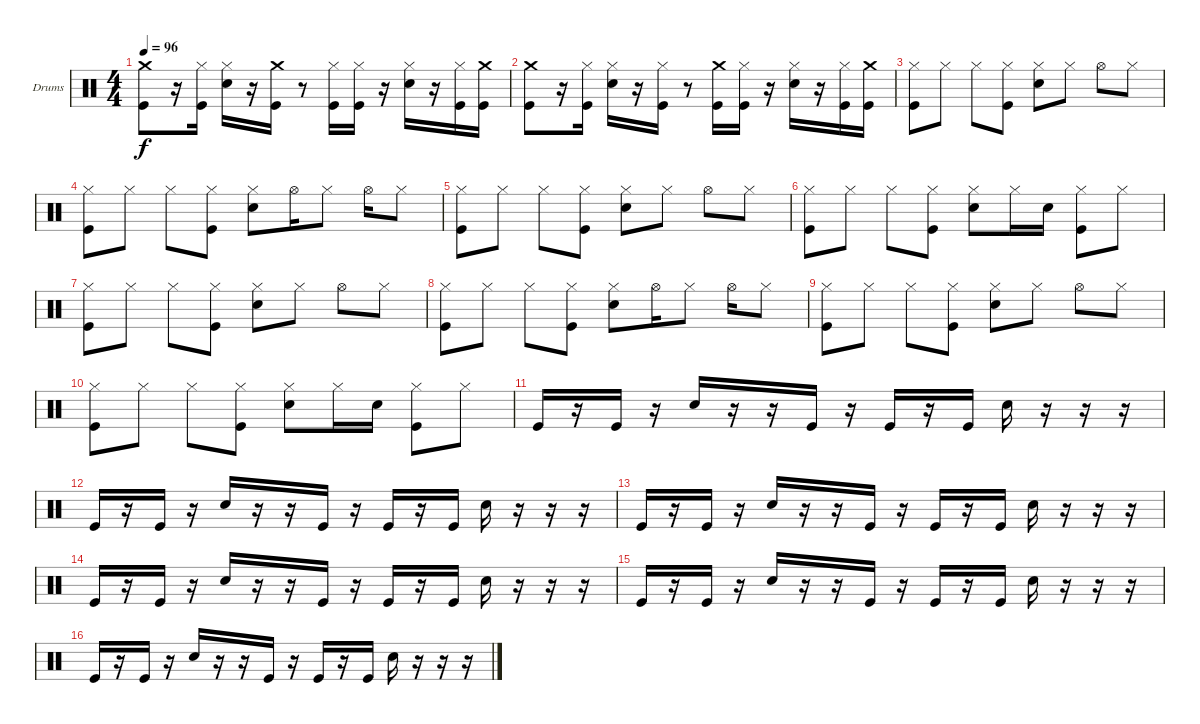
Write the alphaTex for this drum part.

\defaultSystemsLayout 4
\bracketExtendMode groupsimilarinstruments
\firstSystemTrackNameOrientation horizontal
\otherSystemsTrackNameOrientation horizontal
\track ("Павел Тетерин(Pa$ok)" "Drums") {instrument percussion}
\staff {score}
\articulation defaults
\ts (4 4)
\tempo 96
\clef neutral
\ks c
("Crash medium (hit)" "Kick (hit)").8{dy f} r.16 ("Hi-Hat (closed)" "Kick (hit)").16 ("Snare (hit) 2" "Hi-Hat (closed)").16 r.16 ("Crash medium (hit)" "Kick (hit)").16 r.8 ("Hi-Hat (closed)" "Kick (hit)").16 ("Hi-Hat (closed)" "Kick (hit)").16 r.16 ("Snare (hit) 2" "Hi-Hat (closed)").16 r.16 ("Hi-Hat (closed)" "Kick (hit)").16 ("Crash medium (hit)" "Kick (hit)").16 |
("Crash medium (hit)" "Kick (hit)").8 r.16 ("Hi-Hat (closed)" "Kick (hit)").16 ("Snare (hit) 2" "Hi-Hat (closed)").16 r.16 ("Hi-Hat (closed)" "Kick (hit)").16 r.8 ("Crash medium (hit)" "Kick (hit)").16 ("Hi-Hat (closed)" "Kick (hit)").16 r.16 ("Snare (hit) 2" "Hi-Hat (closed)").16 r.16 ("Hi-Hat (closed)" "Kick (hit)").16 ("Crash medium (hit)" "Kick (hit)").16 |
("Hi-Hat (closed)" "Kick (hit)").8 "Hi-Hat (closed)".8 "Hi-Hat (closed)".8 ("Hi-Hat (closed)" "Kick (hit)").8 ("Hi-Hat (closed)" "Snare (hit) 2").8 "Hi-Hat (closed)".8 "Hi-Hat (open)".8 "Hi-Hat (closed)".8 |
("Hi-Hat (closed)" "Kick (hit)").8 "Hi-Hat (closed)".8 "Hi-Hat (closed)".8 ("Hi-Hat (closed)" "Kick (hit)").8 ("Hi-Hat (closed)" "Snare (hit) 2").8 "Hi-Hat (open)".16 "Hi-Hat (closed)".8 "Hi-Hat (open)".16 "Hi-Hat (closed)".8 |
("Hi-Hat (closed)" "Kick (hit)").8 "Hi-Hat (closed)".8 "Hi-Hat (closed)".8 ("Hi-Hat (closed)" "Kick (hit)").8 ("Hi-Hat (closed)" "Snare (hit) 2").8 "Hi-Hat (closed)".8 "Hi-Hat (open)".8 "Hi-Hat (closed)".8 |
("Hi-Hat (closed)" "Kick (hit)").8 "Hi-Hat (closed)".8 "Hi-Hat (closed)".8 ("Hi-Hat (closed)" "Kick (hit)").8 ("Hi-Hat (closed)" "Snare (hit) 2").8 "Hi-Hat (closed)".16 "Snare (hit) 2".16 ("Hi-Hat (closed)" "Kick (hit)").8 "Hi-Hat (closed)".8 |
("Hi-Hat (closed)" "Kick (hit)").8 "Hi-Hat (closed)".8 "Hi-Hat (closed)".8 ("Hi-Hat (closed)" "Kick (hit)").8 ("Hi-Hat (closed)" "Snare (hit) 2").8 "Hi-Hat (closed)".8 "Hi-Hat (open)".8 "Hi-Hat (closed)".8 |
("Hi-Hat (closed)" "Kick (hit)").8 "Hi-Hat (closed)".8 "Hi-Hat (closed)".8 ("Hi-Hat (closed)" "Kick (hit)").8 ("Hi-Hat (closed)" "Snare (hit) 2").8 "Hi-Hat (open)".16 "Hi-Hat (closed)".8 "Hi-Hat (open)".16 "Hi-Hat (closed)".8 |
("Hi-Hat (closed)" "Kick (hit)").8 "Hi-Hat (closed)".8 "Hi-Hat (closed)".8 ("Hi-Hat (closed)" "Kick (hit)").8 ("Hi-Hat (closed)" "Snare (hit) 2").8 "Hi-Hat (closed)".8 "Hi-Hat (open)".8 "Hi-Hat (closed)".8 |
("Hi-Hat (closed)" "Kick (hit)").8 "Hi-Hat (closed)".8 "Hi-Hat (closed)".8 ("Hi-Hat (closed)" "Kick (hit)").8 ("Hi-Hat (closed)" "Snare (hit) 2").8 "Hi-Hat (closed)".16 "Snare (hit) 2".16 ("Hi-Hat (closed)" "Kick (hit)").8 "Hi-Hat (closed)".8 |
"Kick (hit)".16 r.16 "Kick (hit)".16 r.16 "Snare (hit) 2".16 r.16 r.16 "Kick (hit)".16 r.16 "Kick (hit)".16 r.16 "Kick (hit)".16 "Snare (hit) 2".16 r.16 r.16 r.16 |
"Kick (hit)".16 r.16 "Kick (hit)".16 r.16 "Snare (hit) 2".16 r.16 r.16 "Kick (hit)".16 r.16 "Kick (hit)".16 r.16 "Kick (hit)".16 "Snare (hit) 2".16 r.16 r.16 r.16 |
"Kick (hit)".16 r.16 "Kick (hit)".16 r.16 "Snare (hit) 2".16 r.16 r.16 "Kick (hit)".16 r.16 "Kick (hit)".16 r.16 "Kick (hit)".16 "Snare (hit) 2".16 r.16 r.16 r.16 |
"Kick (hit)".16 r.16 "Kick (hit)".16 r.16 "Snare (hit) 2".16 r.16 r.16 "Kick (hit)".16 r.16 "Kick (hit)".16 r.16 "Kick (hit)".16 "Snare (hit) 2".16 r.16 r.16 r.16 |
"Kick (hit)".16 r.16 "Kick (hit)".16 r.16 "Snare (hit) 2".16 r.16 r.16 "Kick (hit)".16 r.16 "Kick (hit)".16 r.16 "Kick (hit)".16 "Snare (hit) 2".16 r.16 r.16 r.16 |
"Kick (hit)".16 r.16 "Kick (hit)".16 r.16 "Snare (hit) 2".16 r.16 r.16 "Kick (hit)".16 r.16 "Kick (hit)".16 r.16 "Kick (hit)".16 "Snare (hit) 2".16 r.16 r.16 r.16
